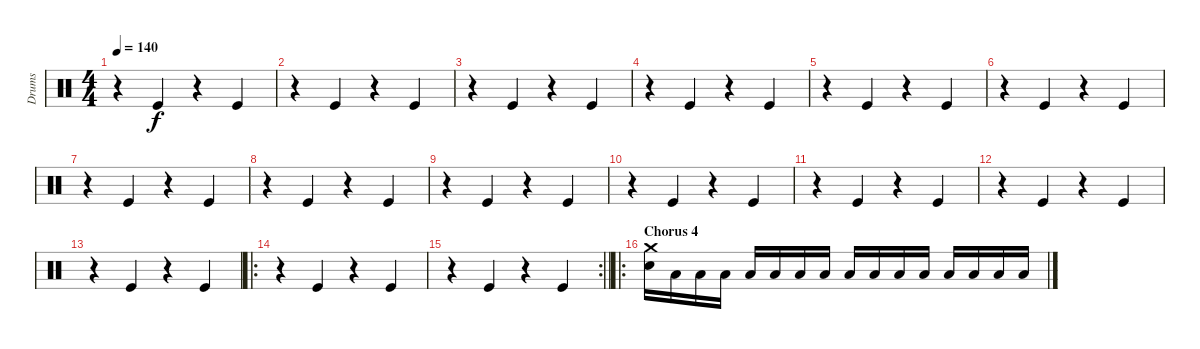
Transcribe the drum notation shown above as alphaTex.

\track ("Drums" "Drums") {instrument percussion}
\staff {score}
\articulation defaults
\ts (4 4)
\tempo 140
\clef neutral
\ks c
r.4{dy f} "Kick (hit)".4 r.4 "Kick (hit)".4 |
r.4 "Kick (hit)".4 r.4 "Kick (hit)".4 |
r.4 "Kick (hit)".4 r.4 "Kick (hit)".4 |
r.4 "Kick (hit)".4 r.4 "Kick (hit)".4 |
r.4 "Kick (hit)".4 r.4 "Kick (hit)".4 |
r.4 "Kick (hit)".4 r.4 "Kick (hit)".4 |
r.4 "Kick (hit)".4 r.4 "Kick (hit)".4 |
r.4 "Kick (hit)".4 r.4 "Kick (hit)".4 |
r.4 "Kick (hit)".4 r.4 "Kick (hit)".4 |
r.4 "Kick (hit)".4 r.4 "Kick (hit)".4 |
r.4 "Kick (hit)".4 r.4 "Kick (hit)".4 |
r.4 "Kick (hit)".4 r.4 "Kick (hit)".4 |
r.4 "Kick (hit)".4 r.4 "Kick (hit)".4 |
\ro
r.4 "Kick (hit)".4 r.4 "Kick (hit)".4 |
\rc 2
\barLineRight lightlight
r.4 "Kick (hit)".4 r.4 "Kick (hit)".4 |
\ro
\section ("" "Chorus 4")
("Crash medium (hit)" "Snare (hit) 2").16 "Low Floor Tom (hit)".16 "Low Floor Tom (hit)".16 "Low Floor Tom (hit)".16 "Low Tom (hit)".16 "Low Floor Tom (hit)".16 "Low Floor Tom (hit)".16 "Low Floor Tom (hit)".16 "Low Tom (hit)".16 "Low Floor Tom (hit)".16 "Low Floor Tom (hit)".16 "Low Floor Tom (hit)".16 "Low Tom (hit)".16 "Low Floor Tom (hit)".16 "Low Floor Tom (hit)".16 "Low Floor Tom (hit)".16
